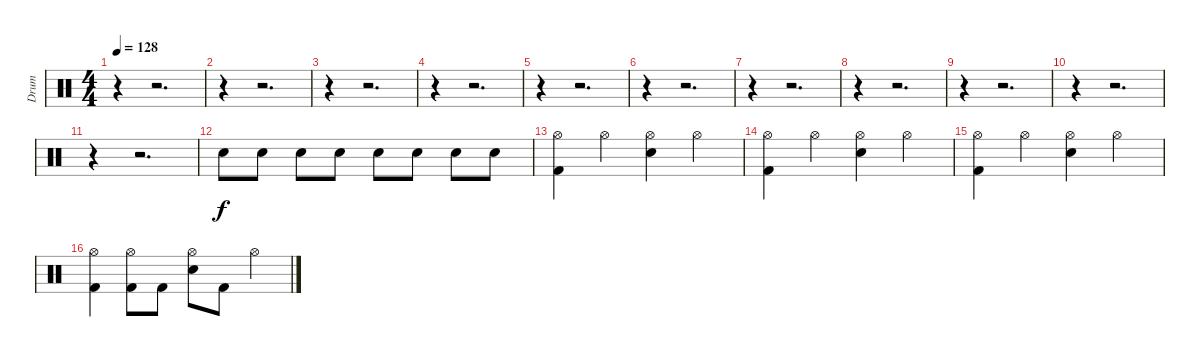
\track ("Drum" "Drum") {instrument percussion}
\staff {score}
\articulation defaults
\ts (4 4)
\tempo 128
\clef neutral
\ks c
r.4{dy f} r.2{d} |
r.4 r.2{d} |
r.4 r.2{d} |
r.4 r.2{d} |
r.4 r.2{d} |
r.4 r.2{d} |
r.4 r.2{d} |
r.4 r.2{d} |
r.4 r.2{d} |
r.4 r.2{d} |
r.4 r.2{d} |
"Snare (hit) 2".8 "Snare (hit) 2".8 "Snare (hit) 2".8 "Snare (hit) 2".8 "Snare (hit) 2".8 "Snare (hit) 2".8 "Snare (hit) 2".8 "Snare (hit) 2".8 |
("Hi-Hat (open)" "Kick (hit) 2").4 "Hi-Hat (open)".4 ("Hi-Hat (open)" "Snare (hit) 2").4 "Hi-Hat (open)".4 |
("Hi-Hat (open)" "Kick (hit) 2").4 "Hi-Hat (open)".4 ("Hi-Hat (open)" "Snare (hit) 2").4 "Hi-Hat (open)".4 |
("Hi-Hat (open)" "Kick (hit) 2").4 "Hi-Hat (open)".4 ("Hi-Hat (open)" "Snare (hit) 2").4 "Hi-Hat (open)".4 |
("Hi-Hat (open)" "Kick (hit) 2").4 ("Hi-Hat (open)" "Kick (hit) 2").8 "Kick (hit) 2".8 ("Hi-Hat (open)" "Snare (hit) 2").8 "Kick (hit) 2".8 "Hi-Hat (open)".4
